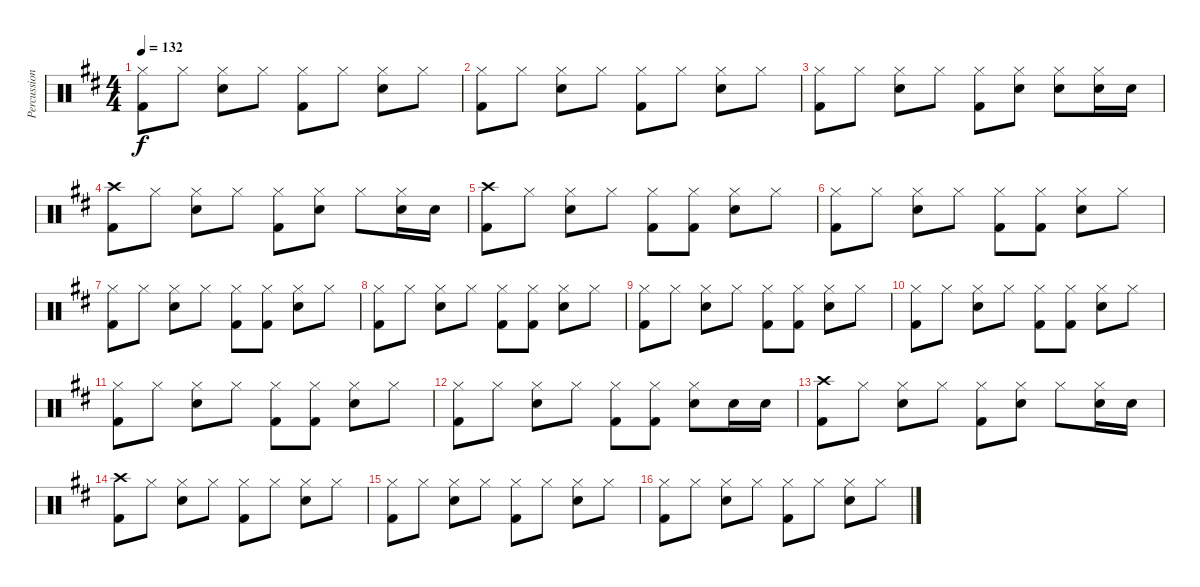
\track ("Percussion" "Percussion") {instrument percussion}
\staff {score}
\articulation defaults
\ts (4 4)
\tempo 132
\clef neutral
\ks d
("Hi-Hat (closed)" "Kick (hit) 2").8{dy f} "Hi-Hat (closed)".8 ("Hi-Hat (closed)" "Electric Snare (hit)").8 "Hi-Hat (closed)".8 ("Hi-Hat (closed)" "Kick (hit) 2").8 "Hi-Hat (closed)".8 ("Hi-Hat (closed)" "Electric Snare (hit)").8 "Hi-Hat (closed)".8 |
("Hi-Hat (closed)" "Kick (hit) 2").8 "Hi-Hat (closed)".8 ("Hi-Hat (closed)" "Electric Snare (hit)").8 "Hi-Hat (closed)".8 ("Hi-Hat (closed)" "Kick (hit) 2").8 "Hi-Hat (closed)".8 ("Hi-Hat (closed)" "Electric Snare (hit)").8 "Hi-Hat (closed)".8 |
("Hi-Hat (closed)" "Kick (hit) 2").8 "Hi-Hat (closed)".8 ("Hi-Hat (closed)" "Electric Snare (hit)").8 "Hi-Hat (closed)".8 ("Hi-Hat (closed)" "Kick (hit) 2").8 ("Hi-Hat (closed)" "Electric Snare (hit)").8 ("Hi-Hat (closed)" "Electric Snare (hit)").8 ("Hi-Hat (closed)" "Electric Snare (hit)").16 "Electric Snare (hit)".16 |
("Crash high (hit)" "Kick (hit) 2").8 "Hi-Hat (closed)".8 ("Hi-Hat (closed)" "Electric Snare (hit)").8 "Hi-Hat (closed)".8 ("Hi-Hat (closed)" "Kick (hit) 2").8 ("Hi-Hat (closed)" "Electric Snare (hit)").8 "Hi-Hat (closed)".8 ("Hi-Hat (closed)" "Electric Snare (hit)").16 "Electric Snare (hit)".16 |
("Crash high (hit)" "Kick (hit) 2").8 "Hi-Hat (closed)".8 ("Hi-Hat (closed)" "Electric Snare (hit)").8 "Hi-Hat (closed)".8 ("Hi-Hat (closed)" "Kick (hit) 2").8 ("Hi-Hat (closed)" "Kick (hit) 2").8 ("Hi-Hat (closed)" "Electric Snare (hit)").8 "Hi-Hat (closed)".8 |
("Hi-Hat (closed)" "Kick (hit) 2").8 "Hi-Hat (closed)".8 ("Hi-Hat (closed)" "Electric Snare (hit)").8 "Hi-Hat (closed)".8 ("Hi-Hat (closed)" "Kick (hit) 2").8 ("Hi-Hat (closed)" "Kick (hit) 2").8 ("Hi-Hat (closed)" "Electric Snare (hit)").8 "Hi-Hat (closed)".8 |
("Hi-Hat (closed)" "Kick (hit) 2").8 "Hi-Hat (closed)".8 ("Hi-Hat (closed)" "Electric Snare (hit)").8 "Hi-Hat (closed)".8 ("Hi-Hat (closed)" "Kick (hit) 2").8 ("Hi-Hat (closed)" "Kick (hit) 2").8 ("Hi-Hat (closed)" "Electric Snare (hit)").8 "Hi-Hat (closed)".8 |
("Hi-Hat (closed)" "Kick (hit) 2").8 "Hi-Hat (closed)".8 ("Hi-Hat (closed)" "Electric Snare (hit)").8 "Hi-Hat (closed)".8 ("Hi-Hat (closed)" "Kick (hit) 2").8 ("Hi-Hat (closed)" "Kick (hit) 2").8 ("Hi-Hat (closed)" "Electric Snare (hit)").8 "Hi-Hat (closed)".8 |
("Hi-Hat (closed)" "Kick (hit) 2").8 "Hi-Hat (closed)".8 ("Hi-Hat (closed)" "Electric Snare (hit)").8 "Hi-Hat (closed)".8 ("Hi-Hat (closed)" "Kick (hit) 2").8 ("Hi-Hat (closed)" "Kick (hit) 2").8 ("Hi-Hat (closed)" "Electric Snare (hit)").8 "Hi-Hat (closed)".8 |
("Hi-Hat (closed)" "Kick (hit) 2").8 "Hi-Hat (closed)".8 ("Hi-Hat (closed)" "Electric Snare (hit)").8 "Hi-Hat (closed)".8 ("Hi-Hat (closed)" "Kick (hit) 2").8 ("Hi-Hat (closed)" "Kick (hit) 2").8 ("Hi-Hat (closed)" "Electric Snare (hit)").8 "Hi-Hat (closed)".8 |
("Hi-Hat (closed)" "Kick (hit) 2").8 "Hi-Hat (closed)".8 ("Hi-Hat (closed)" "Electric Snare (hit)").8 "Hi-Hat (closed)".8 ("Hi-Hat (closed)" "Kick (hit) 2").8 ("Hi-Hat (closed)" "Kick (hit) 2").8 ("Hi-Hat (closed)" "Electric Snare (hit)").8 "Hi-Hat (closed)".8 |
("Hi-Hat (closed)" "Kick (hit) 2").8 "Hi-Hat (closed)".8 ("Hi-Hat (closed)" "Electric Snare (hit)").8 "Hi-Hat (closed)".8 ("Hi-Hat (closed)" "Kick (hit) 2").8 ("Hi-Hat (closed)" "Kick (hit) 2").8 ("Hi-Hat (closed)" "Electric Snare (hit)").8 "Electric Snare (hit)".16 "Electric Snare (hit)".16 |
("Crash high (hit)" "Kick (hit) 2").8 "Hi-Hat (closed)".8 ("Hi-Hat (closed)" "Electric Snare (hit)").8 "Hi-Hat (closed)".8 ("Hi-Hat (closed)" "Kick (hit) 2").8 ("Hi-Hat (closed)" "Electric Snare (hit)").8 "Hi-Hat (closed)".8 ("Hi-Hat (closed)" "Electric Snare (hit)").16 "Electric Snare (hit)".16 |
("Crash high (hit)" "Kick (hit) 2").8 "Hi-Hat (closed)".8 ("Hi-Hat (closed)" "Electric Snare (hit)").8 "Hi-Hat (closed)".8 ("Hi-Hat (closed)" "Kick (hit) 2").8 "Hi-Hat (closed)".8 ("Hi-Hat (closed)" "Electric Snare (hit)").8 "Hi-Hat (closed)".8 |
("Hi-Hat (closed)" "Kick (hit) 2").8 "Hi-Hat (closed)".8 ("Hi-Hat (closed)" "Electric Snare (hit)").8 "Hi-Hat (closed)".8 ("Hi-Hat (closed)" "Kick (hit) 2").8 "Hi-Hat (closed)".8 ("Hi-Hat (closed)" "Electric Snare (hit)").8 "Hi-Hat (closed)".8 |
("Hi-Hat (closed)" "Kick (hit) 2").8 "Hi-Hat (closed)".8 ("Hi-Hat (closed)" "Electric Snare (hit)").8 "Hi-Hat (closed)".8 ("Hi-Hat (closed)" "Kick (hit) 2").8 "Hi-Hat (closed)".8 ("Hi-Hat (closed)" "Electric Snare (hit)").8 "Hi-Hat (closed)".8
